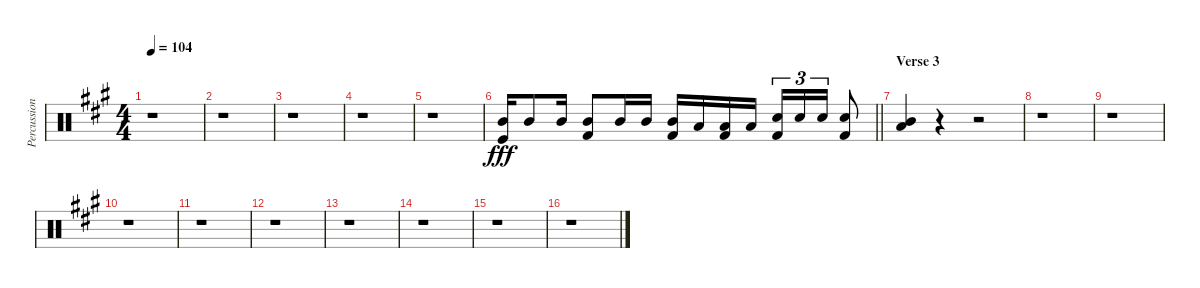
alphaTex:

\track ("Percussion" "Percussion") {instrument percussion}
\staff {score}
\articulation defaults
\ts (4 4)
\tempo 104
\clef neutral
\ks a
r.1{dy fff} |
r.1 |
r.1 |
r.1 |
r.1 |
\barLineRight lightlight
("Kick (hit)" "Mid Tom (hit)").16 "Mid Tom (hit)".8 "Mid Tom (hit)".16 ("Mid Tom (hit)" "Kick (hit) 2").8 "Mid Tom (hit)".16 "Mid Tom (hit)".16 ("Mid Tom (hit)" "Kick (hit) 2").16 "Low Tom (hit)".16 ("Low Tom (hit)" "Kick (hit) 2").16 "Low Tom (hit)".16 ("Snare (hit) 2" "Kick (hit) 2").16{tu (3 2)} "Snare (hit) 2".16{tu (3 2)} "Snare (hit) 2".16{tu (3 2)} ("Snare (hit) 2" "Kick (hit) 2").8 |
\section ("" "Verse 3")
("Low Tom (hit)" "Mid Tom (hit)").4 r.4 r.2 |
r.1 |
r.1 |
r.1 |
r.1 |
r.1 |
r.1 |
r.1 |
r.1 |
r.1
